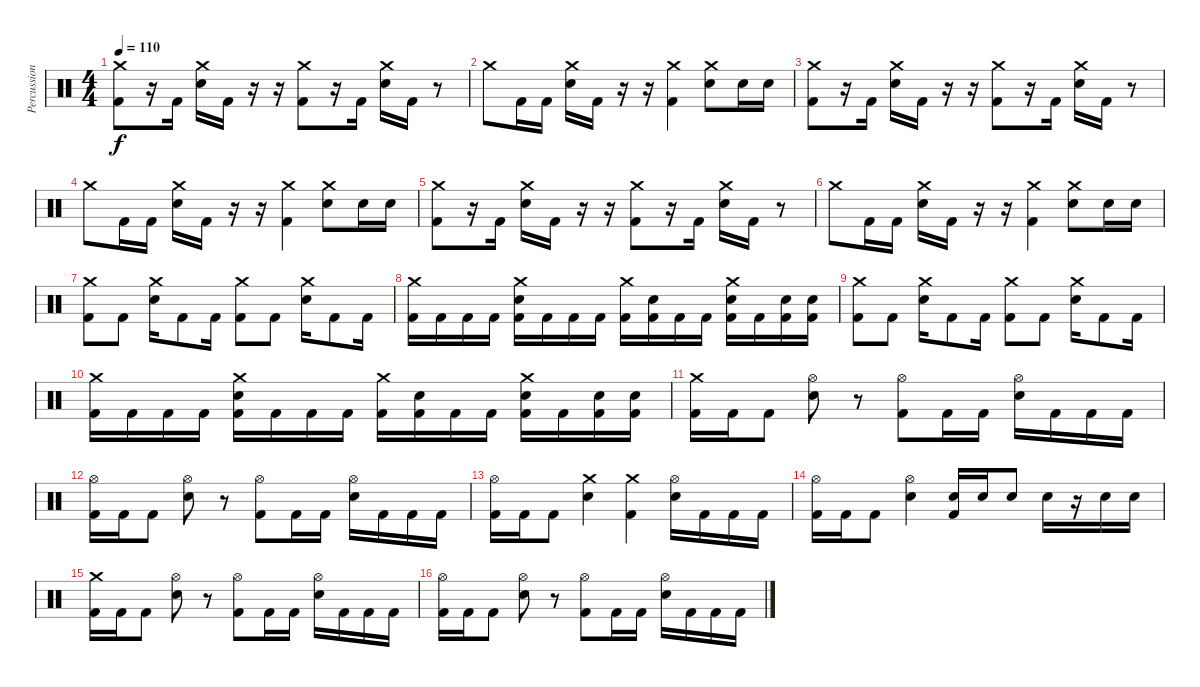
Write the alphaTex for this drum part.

\track ("Percussion" "Percussion") {instrument percussion}
\staff {score}
\articulation defaults
\ts (4 4)
\tempo 110
\clef neutral
\ks c
("Crash medium (hit)" "Kick (hit) 2").8{dy f} r.16 "Kick (hit) 2".16 ("Crash medium (hit)" "Electric Snare (hit)").16 "Kick (hit) 2".16 r.16 r.16 ("Crash medium (hit)" "Kick (hit) 2").8 r.16 "Kick (hit) 2".16 ("Crash medium (hit)" "Electric Snare (hit)").16 "Kick (hit) 2".16 r.8 |
"Crash medium (hit)".8 "Kick (hit) 2".16 "Kick (hit) 2".16 ("Crash medium (hit)" "Electric Snare (hit)").16 "Kick (hit) 2".16 r.16 r.16 ("Crash medium (hit)" "Kick (hit) 2").4 ("Crash medium (hit)" "Electric Snare (hit)").8 "Electric Snare (hit)".16 "Electric Snare (hit)".16 |
("Crash medium (hit)" "Kick (hit) 2").8 r.16 "Kick (hit) 2".16 ("Crash medium (hit)" "Electric Snare (hit)").16 "Kick (hit) 2".16 r.16 r.16 ("Crash medium (hit)" "Kick (hit) 2").8 r.16 "Kick (hit) 2".16 ("Crash medium (hit)" "Electric Snare (hit)").16 "Kick (hit) 2".16 r.8 |
"Crash medium (hit)".8 "Kick (hit) 2".16 "Kick (hit) 2".16 ("Crash medium (hit)" "Electric Snare (hit)").16 "Kick (hit) 2".16 r.16 r.16 ("Crash medium (hit)" "Kick (hit) 2").4 ("Crash medium (hit)" "Electric Snare (hit)").8 "Electric Snare (hit)".16 "Electric Snare (hit)".16 |
("Crash medium (hit)" "Kick (hit) 2").8 r.16 "Kick (hit) 2".16 ("Crash medium (hit)" "Electric Snare (hit)").16 "Kick (hit) 2".16 r.16 r.16 ("Crash medium (hit)" "Kick (hit) 2").8 r.16 "Kick (hit) 2".16 ("Crash medium (hit)" "Electric Snare (hit)").16 "Kick (hit) 2".16 r.8 |
"Crash medium (hit)".8 "Kick (hit) 2".16 "Kick (hit) 2".16 ("Crash medium (hit)" "Electric Snare (hit)").16 "Kick (hit) 2".16 r.16 r.16 ("Crash medium (hit)" "Kick (hit) 2").4 ("Crash medium (hit)" "Electric Snare (hit)").8 "Electric Snare (hit)".16 "Electric Snare (hit)".16 |
("Crash medium (hit)" "Kick (hit) 2").8 "Kick (hit) 2".8 ("Crash medium (hit)" "Electric Snare (hit)").16 "Kick (hit) 2".8 "Kick (hit) 2".16 ("Crash medium (hit)" "Kick (hit) 2").8 "Kick (hit) 2".8 ("Crash medium (hit)" "Electric Snare (hit)").16 "Kick (hit) 2".8 "Kick (hit) 2".16 |
("Crash medium (hit)" "Kick (hit) 2").16 "Kick (hit) 2".16 "Kick (hit) 2".16 "Kick (hit) 2".16 ("Crash medium (hit)" "Electric Snare (hit)" "Kick (hit) 2").16 "Kick (hit) 2".16 "Kick (hit) 2".16 "Kick (hit) 2".16 ("Crash medium (hit)" "Kick (hit) 2").16 ("Electric Snare (hit)" "Kick (hit) 2").16 "Kick (hit) 2".16 "Kick (hit) 2".16 ("Crash medium (hit)" "Electric Snare (hit)" "Kick (hit) 2").16 "Kick (hit) 2".16 ("Electric Snare (hit)" "Kick (hit) 2").16 ("Electric Snare (hit)" "Kick (hit) 2").16 |
("Crash medium (hit)" "Kick (hit) 2").8 "Kick (hit) 2".8 ("Crash medium (hit)" "Electric Snare (hit)").16 "Kick (hit) 2".8 "Kick (hit) 2".16 ("Crash medium (hit)" "Kick (hit) 2").8 "Kick (hit) 2".8 ("Crash medium (hit)" "Electric Snare (hit)").16 "Kick (hit) 2".8 "Kick (hit) 2".16 |
("Crash medium (hit)" "Kick (hit) 2").16 "Kick (hit) 2".16 "Kick (hit) 2".16 "Kick (hit) 2".16 ("Crash medium (hit)" "Electric Snare (hit)" "Kick (hit) 2").16 "Kick (hit) 2".16 "Kick (hit) 2".16 "Kick (hit) 2".16 ("Crash medium (hit)" "Kick (hit) 2").16 ("Electric Snare (hit)" "Kick (hit) 2").16 "Kick (hit) 2".16 "Kick (hit) 2".16 ("Crash medium (hit)" "Electric Snare (hit)" "Kick (hit) 2").16 "Kick (hit) 2".16 ("Electric Snare (hit)" "Kick (hit) 2").16 ("Electric Snare (hit)" "Kick (hit) 2").16 |
("Crash medium (hit)" "Kick (hit) 2").16 "Kick (hit) 2".16 "Kick (hit) 2".8 ("Hi-Hat (open)" "Electric Snare (hit)").8 r.8 ("Hi-Hat (open)" "Kick (hit) 2").8 "Kick (hit) 2".16 "Kick (hit) 2".16 ("Hi-Hat (open)" "Electric Snare (hit)").16 "Kick (hit) 2".16 "Kick (hit) 2".16 "Kick (hit) 2".16 |
("Hi-Hat (open)" "Kick (hit) 2").16 "Kick (hit) 2".16 "Kick (hit) 2".8 ("Hi-Hat (open)" "Electric Snare (hit)").8 r.8 ("Hi-Hat (open)" "Kick (hit) 2").8 "Kick (hit) 2".16 "Kick (hit) 2".16 ("Hi-Hat (open)" "Electric Snare (hit)").16 "Kick (hit) 2".16 "Kick (hit) 2".16 "Kick (hit) 2".16 |
("Hi-Hat (open)" "Kick (hit) 2").16 "Kick (hit) 2".16 "Kick (hit) 2".8 ("Crash medium (hit)" "Electric Snare (hit)").4 ("Crash medium (hit)" "Kick (hit) 2").4 ("Hi-Hat (open)" "Electric Snare (hit)").16 "Kick (hit) 2".16 "Kick (hit) 2".16 "Kick (hit) 2".16 |
("Hi-Hat (open)" "Kick (hit) 2").16 "Kick (hit) 2".16 "Kick (hit) 2".8 ("Hi-Hat (open)" "Electric Snare (hit)").4 ("Electric Snare (hit)" "Kick (hit) 2").16 "Electric Snare (hit)".16 "Electric Snare (hit)".8 "Electric Snare (hit)".16 r.16 "Electric Snare (hit)".16 "Electric Snare (hit)".16 |
("Crash medium (hit)" "Kick (hit) 2").16 "Kick (hit) 2".16 "Kick (hit) 2".8 ("Hi-Hat (open)" "Electric Snare (hit)").8 r.8 ("Hi-Hat (open)" "Kick (hit) 2").8 "Kick (hit) 2".16 "Kick (hit) 2".16 ("Hi-Hat (open)" "Electric Snare (hit)").16 "Kick (hit) 2".16 "Kick (hit) 2".16 "Kick (hit) 2".16 |
("Hi-Hat (open)" "Kick (hit) 2").16 "Kick (hit) 2".16 "Kick (hit) 2".8 ("Hi-Hat (open)" "Electric Snare (hit)").8 r.8 ("Hi-Hat (open)" "Kick (hit) 2").8 "Kick (hit) 2".16 "Kick (hit) 2".16 ("Hi-Hat (open)" "Electric Snare (hit)").16 "Kick (hit) 2".16 "Kick (hit) 2".16 "Kick (hit) 2".16
